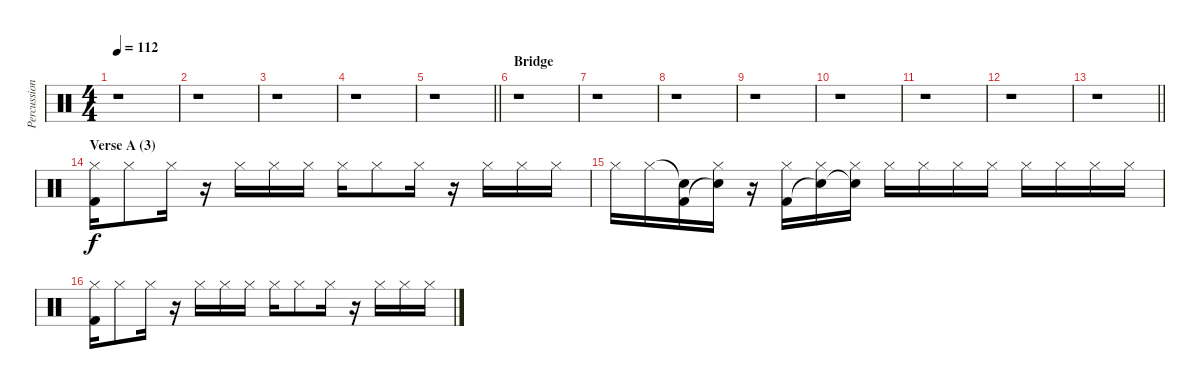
\track ("Percussion" "Percussion") {instrument percussion}
\staff {score}
\articulation defaults
\ts (4 4)
\tempo 112
\clef neutral
\ks c
r.1{dy f} |
r.1 |
r.1 |
r.1 |
\barLineRight lightlight
r.1 |
\section ("" "Bridge")
r.1 |
r.1 |
r.1 |
r.1 |
r.1 |
r.1 |
r.1 |
\barLineRight lightlight
r.1 |
\section ("" "Verse A (3)")
("Hi-Hat (closed)" "Kick (hit) 2").16 "Hi-Hat (closed)".8 "Hi-Hat (closed)".16 r.16 "Hi-Hat (closed)".16 "Hi-Hat (closed)".16 "Hi-Hat (closed)".16 "Hi-Hat (closed)".16 "Hi-Hat (closed)".8 "Hi-Hat (closed)".16 r.16 "Hi-Hat (closed)".16 "Hi-Hat (closed)".16 "Hi-Hat (closed)".16 |
"Hi-Hat (closed)".16 "Hi-Hat (closed)".16 ("Snare (hit)"{t} "Kick (hit) 2").16 ("Hi-Hat (closed)" "Snare (hit)"{t}).16 r.16 ("Hi-Hat (closed)" "Kick (hit) 2").16 ("Hi-Hat (closed)" "Snare (hit)"{t}).16 ("Hi-Hat (closed)" "Snare (hit)"{t}).16 "Hi-Hat (closed)".16 "Hi-Hat (closed)".16 "Hi-Hat (closed)".16 "Hi-Hat (closed)".16 "Hi-Hat (closed)".16 "Hi-Hat (closed)".16 "Hi-Hat (closed)".16 "Hi-Hat (closed)".16 |
("Hi-Hat (closed)" "Kick (hit) 2").16 "Hi-Hat (closed)".8 "Hi-Hat (closed)".16 r.16 "Hi-Hat (closed)".16 "Hi-Hat (closed)".16 "Hi-Hat (closed)".16 "Hi-Hat (closed)".16 "Hi-Hat (closed)".8 "Hi-Hat (closed)".16 r.16 "Hi-Hat (closed)".16 "Hi-Hat (closed)".16 "Hi-Hat (closed)".16
